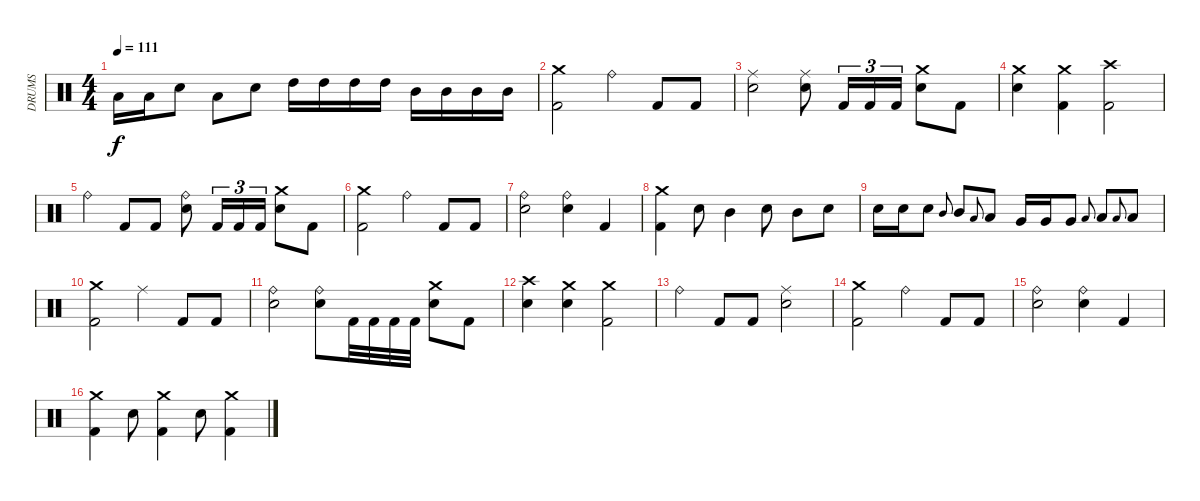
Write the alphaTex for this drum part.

\track ("DRUMS" "DRUMS") {instrument percussion}
\staff {score}
\articulation defaults
\ts (4 4)
\tempo 111
\clef neutral
\ks c "Low Tom (hit)".16{dy f} "Low Tom (hit)".16 "Snare (hit) 2".8 "Low Tom (hit)".8 "Snare (hit) 2".8 "High Tom (hit)".16 "High Tom (hit)".16 "High Tom (hit)".16 "High Tom (hit)".16 "Mid Tom (hit)".16 "Mid Tom (hit)".16 "Mid Tom (hit)".16 "Mid Tom (hit)".16
|
("Crash medium (hit)" "Kick (hit) 2").2 "Ride (bell)".4 "Kick (hit) 2".8 "Kick (hit) 2".8 |
("Ride (middle)" "Snare (hit) 2").2 ("Ride (middle)" "Snare (hit) 2").8 "Kick (hit) 2".16{tu (3 2)} "Kick (hit) 2".16{tu (3 2)} "Kick (hit) 2".16{tu (3 2)} ("Crash medium (hit)" "Snare (hit) 2").8 "Kick (hit) 2".8 |
("Crash medium (hit)" "Snare (hit) 2").4 ("Crash medium (hit)" "Kick (hit) 2").4 ("Crash high (hit)" "Kick (hit) 2").2 |
"Ride (bell)".4 "Kick (hit) 2".8 "Kick (hit) 2".8 ("Ride (bell)" "Snare (hit) 2").8 "Kick (hit) 2".16{tu (3 2)} "Kick (hit) 2".16{tu (3 2)} "Kick (hit) 2".16{tu (3 2)} ("Crash medium (hit)" "Snare (hit) 2").8 "Kick (hit) 2".8 |
("Crash medium (hit)" "Kick (hit) 2").2 "Ride (bell)".4 "Kick (hit) 2".8 "Kick (hit) 2".8 |
("Ride (bell)" "Snare (hit) 2").2 ("Ride (bell)" "Snare (hit) 2").4 "Kick (hit) 2".4 |
("Crash medium (hit)" "Kick (hit) 2").4 "Snare (hit) 2".8 "Mid Tom (hit)".4 "Snare (hit) 2".8 "Mid Tom (hit)".8 "Snare (hit) 2".8 |
"Snare (hit) 2".16 "Snare (hit) 2".16 "Snare (hit) 2".8 "Mid Tom (hit)".8{gr onbeat} "Mid Tom (hit)".8 "Low Tom (hit)".8{gr onbeat} "Low Tom (hit)".8 "Very Low Tom (hit)".16 "Very Low Tom (hit)".16 "Very Low Tom (hit)".8 "Low Floor Tom (hit)".8{gr onbeat} "Low Floor Tom (hit)".8 "Low Floor Tom (hit)".8{gr onbeat} "Low Floor Tom (hit)".8 |
("Crash medium (hit)" "Kick (hit) 2").2 "Ride (middle)".4 "Kick (hit) 2".8 "Kick (hit) 2".8 |
("Ride (bell)" "Snare (hit) 2").2 ("Ride (bell)" "Snare (hit) 2").8 "Kick (hit) 2".32 "Kick (hit) 2".32 "Kick (hit) 2".32 "Kick (hit) 2".32 ("Crash medium (hit)" "Snare (hit) 2").8 "Kick (hit) 2".8 |
("Crash high (hit)" "Snare (hit) 2").4 ("Crash medium (hit)" "Snare (hit) 2").4 ("Crash medium (hit)" "Kick (hit) 2").2 |
"Ride (bell)".4 "Kick (hit) 2".8 "Kick (hit) 2".8 ("Ride (middle)" "Snare (hit) 2").2 |
("Crash medium (hit)" "Kick (hit) 2").2 "Ride (bell)".4 "Kick (hit) 2".8 "Kick (hit) 2".8 |
("Ride (bell)" "Snare (hit) 2").2 ("Ride (bell)" "Snare (hit) 2").4 "Kick (hit) 2".4 |
("Crash medium (hit)" "Kick (hit) 2").4 "Snare (hit) 2".8 ("Crash medium (hit)" "Kick (hit) 2").4 "Snare (hit) 2".8 ("Crash medium (hit)" "Kick (hit) 2").4
